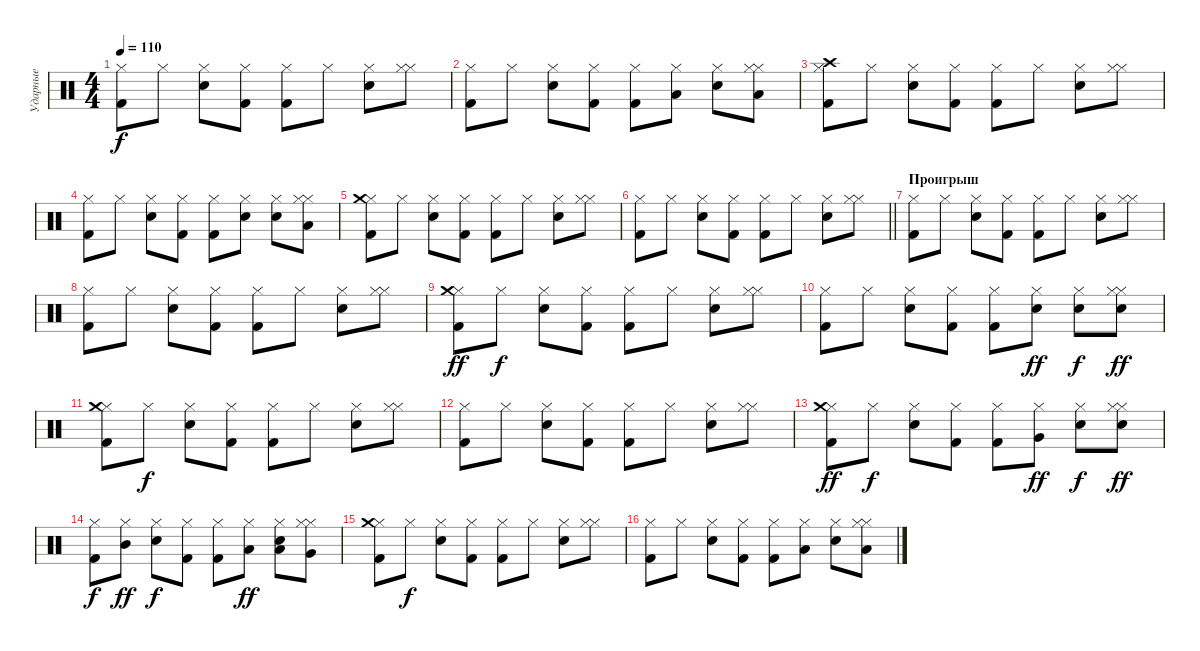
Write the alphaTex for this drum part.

\track ("Ударные" "Ударные") {instrument percussion}
\staff {score}
\articulation defaults
\ts (4 4)
\tempo 110
\clef neutral
\ks c
("Kick (hit) 2" "Hi-Hat (closed)").8{dy f} "Hi-Hat (closed)".8 ("Electric Snare (hit)" "Hi-Hat (closed)").8 ("Kick (hit) 2" "Hi-Hat (closed)").8 ("Kick (hit) 2" "Hi-Hat (closed)").8 "Hi-Hat (closed)".8 ("Electric Snare (hit)" "Hi-Hat (closed)").8 ("Hi-Hat (closed)" "Hi-Hat (closed)").8 |
("Kick (hit) 2" "Hi-Hat (closed)").8 "Hi-Hat (closed)".8 ("Electric Snare (hit)" "Hi-Hat (closed)").8 ("Kick (hit) 2" "Hi-Hat (closed)").8 ("Kick (hit) 2" "Hi-Hat (closed)").8 ("Hi-Hat (closed)" "Low Tom (hit)").8 ("Electric Snare (hit)" "Hi-Hat (closed)").8 ("Hi-Hat (closed)" "Hi-Hat (closed)" "Low Floor Tom (hit)").8 |
("Kick (hit) 2" "Hi-Hat (closed)" "Crash high (hit)").8 "Hi-Hat (closed)".8 ("Electric Snare (hit)" "Hi-Hat (closed)").8 ("Kick (hit) 2" "Hi-Hat (closed)").8 ("Kick (hit) 2" "Hi-Hat (closed)").8 "Hi-Hat (closed)".8 ("Electric Snare (hit)" "Hi-Hat (closed)").8 ("Hi-Hat (closed)" "Hi-Hat (closed)").8 |
("Kick (hit) 2" "Hi-Hat (closed)").8 "Hi-Hat (closed)".8 ("Electric Snare (hit)" "Hi-Hat (closed)").8 ("Kick (hit) 2" "Hi-Hat (closed)").8 ("Kick (hit) 2" "Hi-Hat (closed)").8 ("Hi-Hat (closed)" "Electric Snare (hit)").8 ("Electric Snare (hit)" "Hi-Hat (closed)").8 ("Hi-Hat (closed)" "Hi-Hat (closed)" "Low Tom (hit)").8 |
("Kick (hit) 2" "Hi-Hat (closed)" "Crash medium (hit)").8 "Hi-Hat (closed)".8 ("Electric Snare (hit)" "Hi-Hat (closed)").8 ("Kick (hit) 2" "Hi-Hat (closed)").8 ("Kick (hit) 2" "Hi-Hat (closed)").8 "Hi-Hat (closed)".8 ("Electric Snare (hit)" "Hi-Hat (closed)").8 ("Hi-Hat (closed)" "Hi-Hat (closed)").8 |
\barLineRight lightlight
("Kick (hit) 2" "Hi-Hat (closed)").8 "Hi-Hat (closed)".8 ("Electric Snare (hit)" "Hi-Hat (closed)").8 ("Kick (hit) 2" "Hi-Hat (closed)").8 ("Kick (hit) 2" "Hi-Hat (closed)").8 "Hi-Hat (closed)".8 ("Electric Snare (hit)" "Hi-Hat (closed)").8 ("Hi-Hat (closed)" "Hi-Hat (closed)").8 |
\section ("" "Проигрыш")
("Kick (hit) 2" "Hi-Hat (closed)").8 "Hi-Hat (closed)".8 ("Electric Snare (hit)" "Hi-Hat (closed)").8 ("Kick (hit) 2" "Hi-Hat (closed)").8 ("Kick (hit) 2" "Hi-Hat (closed)").8 "Hi-Hat (closed)".8 ("Electric Snare (hit)" "Hi-Hat (closed)").8 ("Hi-Hat (closed)" "Hi-Hat (closed)").8 |
("Kick (hit) 2" "Hi-Hat (closed)").8 "Hi-Hat (closed)".8 ("Electric Snare (hit)" "Hi-Hat (closed)").8 ("Kick (hit) 2" "Hi-Hat (closed)").8 ("Kick (hit) 2" "Hi-Hat (closed)").8 "Hi-Hat (closed)".8 ("Electric Snare (hit)" "Hi-Hat (closed)").8 ("Hi-Hat (closed)" "Hi-Hat (closed)").8 |
("Kick (hit) 2" "Hi-Hat (closed)" "Crash medium (hit)").8{dy ff} "Hi-Hat (closed)".8{dy f} ("Electric Snare (hit)" "Hi-Hat (closed)").8 ("Kick (hit) 2" "Hi-Hat (closed)").8 ("Kick (hit) 2" "Hi-Hat (closed)").8 "Hi-Hat (closed)".8 ("Electric Snare (hit)" "Hi-Hat (closed)").8 ("Hi-Hat (closed)" "Hi-Hat (closed)").8 |
("Kick (hit) 2" "Hi-Hat (closed)").8 "Hi-Hat (closed)".8 ("Electric Snare (hit)" "Hi-Hat (closed)").8 ("Kick (hit) 2" "Hi-Hat (closed)").8 ("Kick (hit) 2" "Hi-Hat (closed)").8 ("Hi-Hat (closed)" "Electric Snare (hit)").8{dy ff} ("Electric Snare (hit)" "Hi-Hat (closed)").8{dy f} ("Hi-Hat (closed)" "Hi-Hat (closed)" "Electric Snare (hit)").8{dy ff} |
("Kick (hit) 2" "Hi-Hat (closed)" "Crash medium (hit)").8 "Hi-Hat (closed)".8{dy f} ("Electric Snare (hit)" "Hi-Hat (closed)").8 ("Kick (hit) 2" "Hi-Hat (closed)").8 ("Kick (hit) 2" "Hi-Hat (closed)").8 "Hi-Hat (closed)".8 ("Electric Snare (hit)" "Hi-Hat (closed)").8 ("Hi-Hat (closed)" "Hi-Hat (closed)").8 |
("Kick (hit) 2" "Hi-Hat (closed)").8 "Hi-Hat (closed)".8 ("Electric Snare (hit)" "Hi-Hat (closed)").8 ("Kick (hit) 2" "Hi-Hat (closed)").8 ("Kick (hit) 2" "Hi-Hat (closed)").8 "Hi-Hat (closed)".8 ("Electric Snare (hit)" "Hi-Hat (closed)").8 ("Hi-Hat (closed)" "Hi-Hat (closed)").8 |
("Kick (hit) 2" "Hi-Hat (closed)" "Crash medium (hit)").8{dy ff} "Hi-Hat (closed)".8{dy f} ("Electric Snare (hit)" "Hi-Hat (closed)").8 ("Kick (hit) 2" "Hi-Hat (closed)").8 ("Kick (hit) 2" "Hi-Hat (closed)").8 ("Hi-Hat (closed)" "Very Low Tom (hit)").8{dy ff} ("Electric Snare (hit)" "Hi-Hat (closed)").8{dy f} ("Hi-Hat (closed)" "Hi-Hat (closed)" "Snare (hit)").8{dy ff} |
("Kick (hit) 2" "Hi-Hat (closed)").8{dy f} ("Hi-Hat (closed)" "Mid Tom (hit)").8{dy ff} ("Electric Snare (hit)" "Hi-Hat (closed)").8{dy f} ("Kick (hit) 2" "Hi-Hat (closed)").8 ("Kick (hit) 2" "Hi-Hat (closed)").8 ("Hi-Hat (closed)" "Low Tom (hit)").8{dy ff} ("Electric Snare (hit)" "Hi-Hat (closed)" "Low Floor Tom (hit)").8 ("Hi-Hat (closed)" "Hi-Hat (closed)" "Very Low Tom (hit)").8 |
("Kick (hit) 2" "Hi-Hat (closed)" "Crash medium (hit)").8 "Hi-Hat (closed)".8{dy f} ("Electric Snare (hit)" "Hi-Hat (closed)").8 ("Kick (hit) 2" "Hi-Hat (closed)").8 ("Kick (hit) 2" "Hi-Hat (closed)").8 "Hi-Hat (closed)".8 ("Electric Snare (hit)" "Hi-Hat (closed)").8 ("Hi-Hat (closed)" "Hi-Hat (closed)").8 |
("Kick (hit) 2" "Hi-Hat (closed)").8 "Hi-Hat (closed)".8 ("Electric Snare (hit)" "Hi-Hat (closed)").8 ("Kick (hit) 2" "Hi-Hat (closed)").8 ("Kick (hit) 2" "Hi-Hat (closed)").8 ("Hi-Hat (closed)" "Low Tom (hit)").8 ("Electric Snare (hit)" "Hi-Hat (closed)").8 ("Hi-Hat (closed)" "Hi-Hat (closed)" "Low Floor Tom (hit)").8
